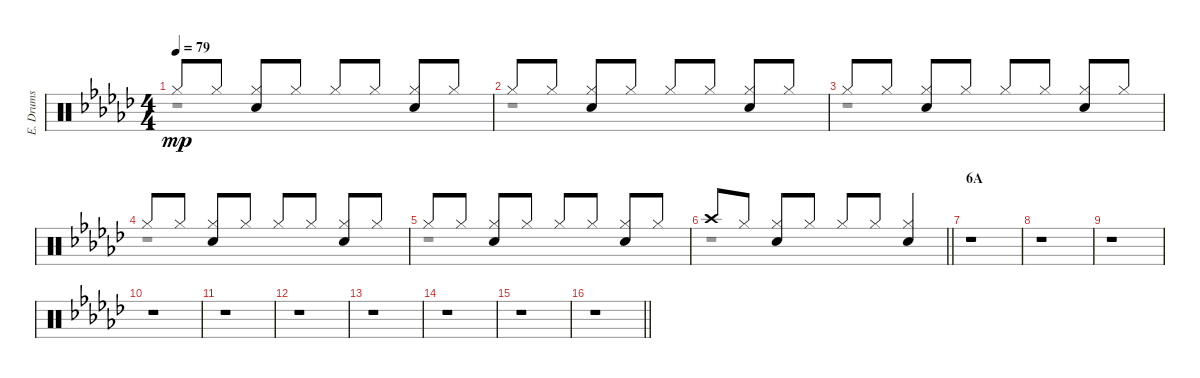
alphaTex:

\track ("E. Drums" "E. Drums") {instrument percussion}
\staff {score}
\articulation defaults
\voice
\ts (4 4)
\tempo 79
\clef neutral
\ks gb "Hi-Hat (closed)".8{dy mp} "Hi-Hat (closed)".8
("Hi-Hat (closed)" "Electric Snare (hit)").8 "Hi-Hat (closed)".8 "Hi-Hat (closed)".8 "Hi-Hat (closed)".8 ("Hi-Hat (closed)" "Electric Snare (hit)").8 "Hi-Hat (closed)".8 |
"Hi-Hat (closed)".8 "Hi-Hat (closed)".8 ("Hi-Hat (closed)" "Electric Snare (hit)").8 "Hi-Hat (closed)".8 "Hi-Hat (closed)".8 "Hi-Hat (closed)".8 ("Hi-Hat (closed)" "Electric Snare (hit)").8 "Hi-Hat (closed)".8 |
"Hi-Hat (closed)".8 "Hi-Hat (closed)".8 ("Hi-Hat (closed)" "Electric Snare (hit)").8 "Hi-Hat (closed)".8 "Hi-Hat (closed)".8 "Hi-Hat (closed)".8 ("Hi-Hat (closed)" "Electric Snare (hit)").8 "Hi-Hat (closed)".8 |
"Hi-Hat (closed)".8 "Hi-Hat (closed)".8 ("Hi-Hat (closed)" "Electric Snare (hit)").8 "Hi-Hat (closed)".8 "Hi-Hat (closed)".8 "Hi-Hat (closed)".8 ("Hi-Hat (closed)" "Electric Snare (hit)").8 "Hi-Hat (closed)".8 |
"Hi-Hat (closed)".8 "Hi-Hat (closed)".8 ("Hi-Hat (closed)" "Electric Snare (hit)").8 "Hi-Hat (closed)".8 "Hi-Hat (closed)".8 "Hi-Hat (closed)".8 ("Hi-Hat (closed)" "Electric Snare (hit)").8 "Hi-Hat (closed)".8 |
\barLineRight lightlight "Crash high (hit)".8 "Hi-Hat (closed)".8
("Hi-Hat (closed)" "Electric Snare (hit)").8 "Hi-Hat (closed)".8 "Hi-Hat (closed)".8 "Hi-Hat (closed)".8 ("Hi-Hat (closed)" "Electric Snare (hit)").4 |
\section ("" "6A")
r.1 |
r.1 |
r.1 |
r.1 |
r.1 |
r.1 |
r.1 |
r.1 |
r.1 |
\barLineRight lightlight
r.1
\voice
\clef neutral
\ottava regular
\simile none
\ks gb
r.1{dy f} |
r.1 |
r.1 |
r.1 |
r.1 |
\barLineRight lightlight
r.1 |
r.1 |
r.1 |
r.1 |
r.1 |
r.1 |
r.1 |
r.1 |
r.1 |
r.1 |
\barLineRight lightlight
r.1
